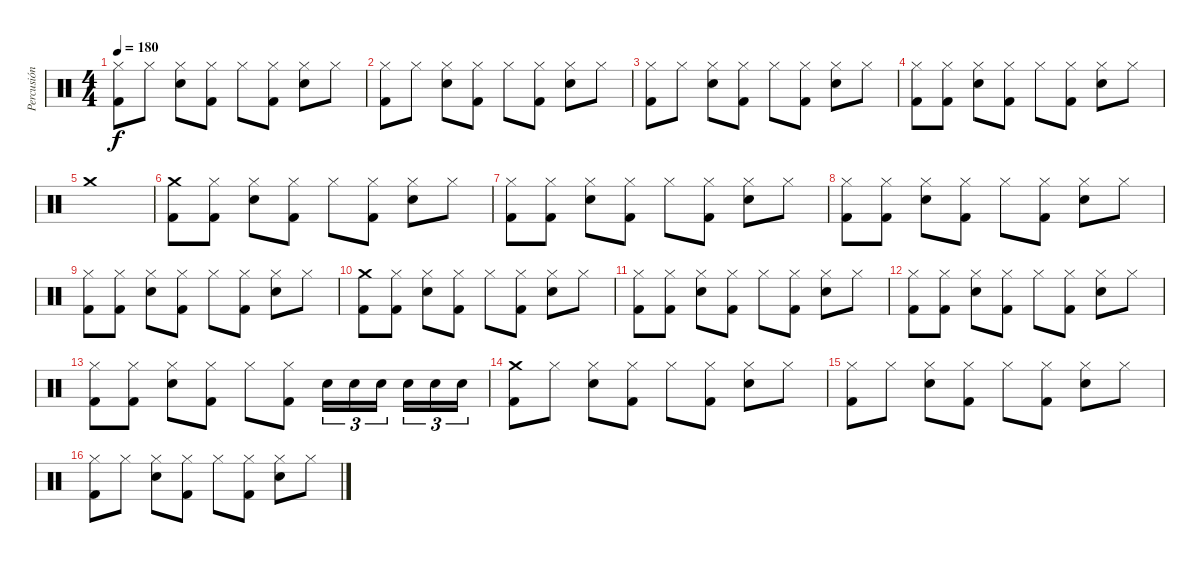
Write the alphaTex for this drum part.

\track ("Percusión" "Percusión") {instrument percussion}
\staff {score}
\articulation defaults
\ts (4 4)
\tempo 180
\clef neutral
\ks c
("Hi-Hat (closed)" "Kick (hit) 2").8{dy f} "Hi-Hat (closed)".8 ("Hi-Hat (closed)" "Electric Snare (hit)").8 ("Hi-Hat (closed)" "Kick (hit) 2").8 "Hi-Hat (closed)".8 ("Hi-Hat (closed)" "Kick (hit) 2").8 ("Hi-Hat (closed)" "Electric Snare (hit)").8 "Hi-Hat (closed)".8 |
("Hi-Hat (closed)" "Kick (hit) 2").8 "Hi-Hat (closed)".8 ("Hi-Hat (closed)" "Electric Snare (hit)").8 ("Hi-Hat (closed)" "Kick (hit) 2").8 "Hi-Hat (closed)".8 ("Hi-Hat (closed)" "Kick (hit) 2").8 ("Hi-Hat (closed)" "Electric Snare (hit)").8 "Hi-Hat (closed)".8 |
("Hi-Hat (closed)" "Kick (hit) 2").8 "Hi-Hat (closed)".8 ("Hi-Hat (closed)" "Electric Snare (hit)").8 ("Hi-Hat (closed)" "Kick (hit) 2").8 "Hi-Hat (closed)".8 ("Hi-Hat (closed)" "Kick (hit) 2").8 ("Hi-Hat (closed)" "Electric Snare (hit)").8 "Hi-Hat (closed)".8 |
("Hi-Hat (closed)" "Kick (hit) 2").8 ("Hi-Hat (closed)" "Kick (hit) 2").8 ("Hi-Hat (closed)" "Electric Snare (hit)").8 ("Hi-Hat (closed)" "Kick (hit) 2").8 "Hi-Hat (closed)".8 ("Hi-Hat (closed)" "Kick (hit) 2").8 ("Hi-Hat (closed)" "Electric Snare (hit)").8 "Hi-Hat (closed)".8 |
"Crash medium (hit)".1 |
("Crash medium (hit)" "Kick (hit) 2").8 ("Hi-Hat (closed)" "Kick (hit) 2").8 ("Hi-Hat (closed)" "Electric Snare (hit)").8 ("Hi-Hat (closed)" "Kick (hit) 2").8 "Hi-Hat (closed)".8 ("Hi-Hat (closed)" "Kick (hit) 2").8 ("Hi-Hat (closed)" "Electric Snare (hit)").8 "Hi-Hat (closed)".8 |
("Hi-Hat (closed)" "Kick (hit) 2").8 ("Hi-Hat (closed)" "Kick (hit) 2").8 ("Hi-Hat (closed)" "Electric Snare (hit)").8 ("Hi-Hat (closed)" "Kick (hit) 2").8 "Hi-Hat (closed)".8 ("Hi-Hat (closed)" "Kick (hit) 2").8 ("Hi-Hat (closed)" "Electric Snare (hit)").8 "Hi-Hat (closed)".8 |
("Hi-Hat (closed)" "Kick (hit) 2").8 ("Hi-Hat (closed)" "Kick (hit) 2").8 ("Hi-Hat (closed)" "Electric Snare (hit)").8 ("Hi-Hat (closed)" "Kick (hit) 2").8 "Hi-Hat (closed)".8 ("Hi-Hat (closed)" "Kick (hit) 2").8 ("Hi-Hat (closed)" "Electric Snare (hit)").8 "Hi-Hat (closed)".8 |
("Hi-Hat (closed)" "Kick (hit) 2").8 ("Hi-Hat (closed)" "Kick (hit) 2").8 ("Hi-Hat (closed)" "Electric Snare (hit)").8 ("Hi-Hat (closed)" "Kick (hit) 2").8 "Hi-Hat (closed)".8 ("Hi-Hat (closed)" "Kick (hit) 2").8 ("Hi-Hat (closed)" "Electric Snare (hit)").8 "Hi-Hat (closed)".8 |
("Crash medium (hit)" "Kick (hit) 2").8 ("Hi-Hat (closed)" "Kick (hit) 2").8 ("Hi-Hat (closed)" "Electric Snare (hit)").8 ("Hi-Hat (closed)" "Kick (hit) 2").8 "Hi-Hat (closed)".8 ("Hi-Hat (closed)" "Kick (hit) 2").8 ("Hi-Hat (closed)" "Electric Snare (hit)").8 "Hi-Hat (closed)".8 |
("Hi-Hat (closed)" "Kick (hit) 2").8 ("Hi-Hat (closed)" "Kick (hit) 2").8 ("Hi-Hat (closed)" "Electric Snare (hit)").8 ("Hi-Hat (closed)" "Kick (hit) 2").8 "Hi-Hat (closed)".8 ("Hi-Hat (closed)" "Kick (hit) 2").8 ("Hi-Hat (closed)" "Electric Snare (hit)").8 "Hi-Hat (closed)".8 |
("Hi-Hat (closed)" "Kick (hit) 2").8 ("Hi-Hat (closed)" "Kick (hit) 2").8 ("Hi-Hat (closed)" "Electric Snare (hit)").8 ("Hi-Hat (closed)" "Kick (hit) 2").8 "Hi-Hat (closed)".8 ("Hi-Hat (closed)" "Kick (hit) 2").8 ("Hi-Hat (closed)" "Electric Snare (hit)").8 "Hi-Hat (closed)".8 |
("Hi-Hat (closed)" "Kick (hit) 2").8 ("Hi-Hat (closed)" "Kick (hit) 2").8 ("Hi-Hat (closed)" "Electric Snare (hit)").8 ("Hi-Hat (closed)" "Kick (hit) 2").8 "Hi-Hat (closed)".8 ("Hi-Hat (closed)" "Kick (hit) 2").8 "Electric Snare (hit)".16{tu (3 2)} "Electric Snare (hit)".16{tu (3 2)} "Electric Snare (hit)".16{tu (3 2) beam splitsecondary} "Electric Snare (hit)".16{tu (3 2)} "Electric Snare (hit)".16{tu (3 2)} "Electric Snare (hit)".16{tu (3 2)} |
("Crash medium (hit)" "Kick (hit) 2").8 "Hi-Hat (closed)".8 ("Hi-Hat (closed)" "Electric Snare (hit)").8 ("Hi-Hat (closed)" "Kick (hit) 2").8 "Hi-Hat (closed)".8 ("Hi-Hat (closed)" "Kick (hit) 2").8 ("Hi-Hat (closed)" "Electric Snare (hit)").8 "Hi-Hat (closed)".8 |
("Hi-Hat (closed)" "Kick (hit) 2").8 "Hi-Hat (closed)".8 ("Hi-Hat (closed)" "Electric Snare (hit)").8 ("Hi-Hat (closed)" "Kick (hit) 2").8 "Hi-Hat (closed)".8 ("Hi-Hat (closed)" "Kick (hit) 2").8 ("Hi-Hat (closed)" "Electric Snare (hit)").8 "Hi-Hat (closed)".8 |
("Hi-Hat (closed)" "Kick (hit) 2").8 "Hi-Hat (closed)".8 ("Hi-Hat (closed)" "Electric Snare (hit)").8 ("Hi-Hat (closed)" "Kick (hit) 2").8 "Hi-Hat (closed)".8 ("Hi-Hat (closed)" "Kick (hit) 2").8 ("Hi-Hat (closed)" "Electric Snare (hit)").8 "Hi-Hat (closed)".8
